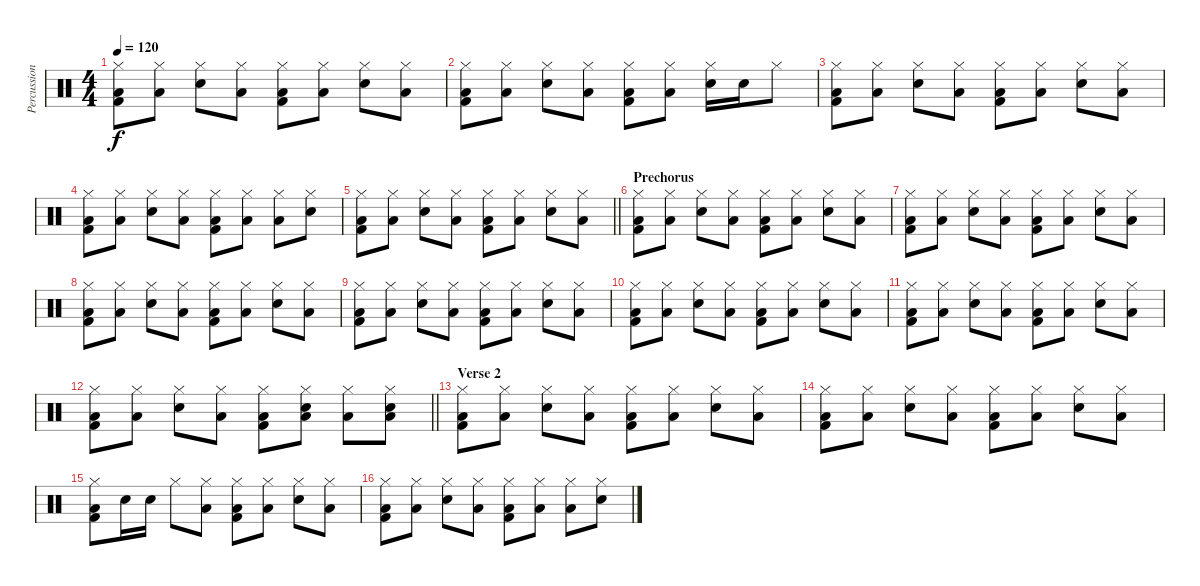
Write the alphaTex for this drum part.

\track ("Percussion" "Percussion") {instrument percussion}
\staff
\articulation defaults
\ts (4 4)
\tempo 120
\clef neutral
\ks c
("Hi-Hat (closed)" "Low Floor Tom (hit)" "Kick (hit) 2").8{dy f} ("Hi-Hat (closed)" "Low Floor Tom (hit)").8 ("Hi-Hat (closed)" "Snare (hit) 2").8 ("Hi-Hat (closed)" "Low Floor Tom (hit)").8 ("Hi-Hat (closed)" "Low Floor Tom (hit)" "Kick (hit) 2").8 ("Hi-Hat (closed)" "Low Floor Tom (hit)").8 ("Hi-Hat (closed)" "Snare (hit) 2").8 ("Hi-Hat (closed)" "Low Floor Tom (hit)").8 |
("Hi-Hat (closed)" "Low Floor Tom (hit)" "Kick (hit) 2").8 ("Hi-Hat (closed)" "Low Floor Tom (hit)").8 ("Hi-Hat (closed)" "Snare (hit) 2").8 ("Hi-Hat (closed)" "Low Floor Tom (hit)").8 ("Hi-Hat (closed)" "Low Floor Tom (hit)" "Kick (hit) 2").8 ("Hi-Hat (closed)" "Low Floor Tom (hit)").8 ("Hi-Hat (closed)" "Snare (hit) 2").16 "Snare (hit) 2".16 "Hi-Hat (closed)".8 |
("Hi-Hat (closed)" "Low Floor Tom (hit)" "Kick (hit) 2").8 ("Hi-Hat (closed)" "Low Floor Tom (hit)").8 ("Hi-Hat (closed)" "Snare (hit) 2").8 ("Hi-Hat (closed)" "Low Floor Tom (hit)").8 ("Hi-Hat (closed)" "Low Floor Tom (hit)" "Kick (hit) 2").8 ("Hi-Hat (closed)" "Low Floor Tom (hit)").8 ("Hi-Hat (closed)" "Snare (hit) 2").8 ("Hi-Hat (closed)" "Low Floor Tom (hit)").8 |
("Hi-Hat (closed)" "Low Floor Tom (hit)" "Kick (hit) 2").8 ("Hi-Hat (closed)" "Low Floor Tom (hit)").8 ("Hi-Hat (closed)" "Snare (hit) 2").8 ("Hi-Hat (closed)" "Low Floor Tom (hit)").8 ("Hi-Hat (closed)" "Low Floor Tom (hit)" "Kick (hit) 2").8 ("Hi-Hat (closed)" "Low Floor Tom (hit)").8 ("Hi-Hat (closed)" "Low Floor Tom (hit)").8 ("Hi-Hat (closed)" "Snare (hit) 2").8 |
\barLineRight lightlight
("Hi-Hat (closed)" "Low Floor Tom (hit)" "Kick (hit) 2").8 ("Hi-Hat (closed)" "Low Floor Tom (hit)").8 ("Hi-Hat (closed)" "Snare (hit) 2").8 ("Hi-Hat (closed)" "Low Floor Tom (hit)").8 ("Hi-Hat (closed)" "Low Floor Tom (hit)" "Kick (hit) 2").8 ("Hi-Hat (closed)" "Low Floor Tom (hit)").8 ("Hi-Hat (closed)" "Snare (hit) 2").8 ("Hi-Hat (closed)" "Low Floor Tom (hit)").8 |
\section ("" "Prechorus")
("Hi-Hat (closed)" "Low Floor Tom (hit)" "Kick (hit) 2").8 ("Hi-Hat (closed)" "Low Floor Tom (hit)").8 ("Hi-Hat (closed)" "Snare (hit) 2").8 ("Hi-Hat (closed)" "Low Floor Tom (hit)").8 ("Hi-Hat (closed)" "Low Floor Tom (hit)" "Kick (hit) 2").8 ("Hi-Hat (closed)" "Low Floor Tom (hit)").8 ("Hi-Hat (closed)" "Snare (hit) 2").8 ("Hi-Hat (closed)" "Low Floor Tom (hit)").8 |
("Hi-Hat (closed)" "Low Floor Tom (hit)" "Kick (hit) 2").8 ("Hi-Hat (closed)" "Low Floor Tom (hit)").8 ("Hi-Hat (closed)" "Snare (hit) 2").8 ("Hi-Hat (closed)" "Low Floor Tom (hit)").8 ("Hi-Hat (closed)" "Low Floor Tom (hit)" "Kick (hit) 2").8 ("Hi-Hat (closed)" "Low Floor Tom (hit)").8 ("Hi-Hat (closed)" "Snare (hit) 2").8 ("Hi-Hat (closed)" "Low Floor Tom (hit)").8 |
("Hi-Hat (closed)" "Low Floor Tom (hit)" "Kick (hit) 2").8 ("Hi-Hat (closed)" "Low Floor Tom (hit)").8 ("Hi-Hat (closed)" "Snare (hit) 2").8 ("Hi-Hat (closed)" "Low Floor Tom (hit)").8 ("Hi-Hat (closed)" "Low Floor Tom (hit)" "Kick (hit) 2").8 ("Hi-Hat (closed)" "Low Floor Tom (hit)").8 ("Hi-Hat (closed)" "Snare (hit) 2").8 ("Hi-Hat (closed)" "Low Floor Tom (hit)").8 |
("Hi-Hat (closed)" "Low Floor Tom (hit)" "Kick (hit) 2").8 ("Hi-Hat (closed)" "Low Floor Tom (hit)").8 ("Hi-Hat (closed)" "Snare (hit) 2").8 ("Hi-Hat (closed)" "Low Floor Tom (hit)").8 ("Hi-Hat (closed)" "Low Floor Tom (hit)" "Kick (hit) 2").8 ("Hi-Hat (closed)" "Low Floor Tom (hit)").8 ("Hi-Hat (closed)" "Snare (hit) 2").8 ("Hi-Hat (closed)" "Low Floor Tom (hit)").8 |
("Hi-Hat (closed)" "Low Floor Tom (hit)" "Kick (hit) 2").8 ("Hi-Hat (closed)" "Low Floor Tom (hit)").8 ("Hi-Hat (closed)" "Snare (hit) 2").8 ("Hi-Hat (closed)" "Low Floor Tom (hit)").8 ("Hi-Hat (closed)" "Low Floor Tom (hit)" "Kick (hit) 2").8 ("Hi-Hat (closed)" "Low Floor Tom (hit)").8 ("Hi-Hat (closed)" "Snare (hit) 2").8 ("Hi-Hat (closed)" "Low Floor Tom (hit)").8 |
("Hi-Hat (closed)" "Low Floor Tom (hit)" "Kick (hit) 2").8 ("Hi-Hat (closed)" "Low Floor Tom (hit)").8 ("Hi-Hat (closed)" "Snare (hit) 2").8 ("Hi-Hat (closed)" "Low Floor Tom (hit)").8 ("Hi-Hat (closed)" "Low Floor Tom (hit)" "Kick (hit) 2").8 ("Hi-Hat (closed)" "Low Floor Tom (hit)").8 ("Hi-Hat (closed)" "Snare (hit) 2").8 ("Hi-Hat (closed)" "Low Floor Tom (hit)").8 |
\barLineRight lightlight
("Hi-Hat (closed)" "Low Floor Tom (hit)" "Kick (hit) 2").8 ("Hi-Hat (closed)" "Low Floor Tom (hit)").8 ("Hi-Hat (closed)" "Snare (hit) 2").8 ("Hi-Hat (closed)" "Low Floor Tom (hit)").8 ("Hi-Hat (closed)" "Low Floor Tom (hit)" "Kick (hit) 2").8 ("Hi-Hat (closed)" "Snare (hit) 2" "Low Floor Tom (hit)").8 ("Hi-Hat (closed)" "Low Floor Tom (hit)").8 ("Hi-Hat (closed)" "Snare (hit) 2" "Low Floor Tom (hit)").8 |
\section ("" "Verse 2")
("Hi-Hat (closed)" "Low Floor Tom (hit)" "Kick (hit) 2").8 ("Hi-Hat (closed)" "Low Floor Tom (hit)").8 ("Hi-Hat (closed)" "Snare (hit) 2").8 ("Hi-Hat (closed)" "Low Floor Tom (hit)").8 ("Hi-Hat (closed)" "Low Floor Tom (hit)" "Kick (hit) 2").8 ("Hi-Hat (closed)" "Low Floor Tom (hit)").8 ("Hi-Hat (closed)" "Snare (hit) 2").8 ("Hi-Hat (closed)" "Low Floor Tom (hit)").8 |
("Hi-Hat (closed)" "Low Floor Tom (hit)" "Kick (hit) 2").8 ("Hi-Hat (closed)" "Low Floor Tom (hit)").8 ("Hi-Hat (closed)" "Snare (hit) 2").8 ("Hi-Hat (closed)" "Low Floor Tom (hit)").8 ("Hi-Hat (closed)" "Low Floor Tom (hit)" "Kick (hit) 2").8 ("Hi-Hat (closed)" "Low Floor Tom (hit)").8 ("Hi-Hat (closed)" "Snare (hit) 2").8 ("Hi-Hat (closed)" "Low Floor Tom (hit)").8 |
("Hi-Hat (closed)" "Low Floor Tom (hit)" "Kick (hit) 2").8 "Snare (hit) 2".16 "Snare (hit) 2".16 "Hi-Hat (closed)".8 ("Hi-Hat (closed)" "Low Floor Tom (hit)").8 ("Hi-Hat (closed)" "Low Floor Tom (hit)" "Kick (hit) 2").8 ("Hi-Hat (closed)" "Low Floor Tom (hit)").8 ("Hi-Hat (closed)" "Snare (hit) 2").8 ("Hi-Hat (closed)" "Low Floor Tom (hit)").8 |
("Hi-Hat (closed)" "Low Floor Tom (hit)" "Kick (hit) 2").8 ("Hi-Hat (closed)" "Low Floor Tom (hit)").8 ("Hi-Hat (closed)" "Snare (hit) 2").8 ("Hi-Hat (closed)" "Low Floor Tom (hit)").8 ("Hi-Hat (closed)" "Low Floor Tom (hit)" "Kick (hit) 2").8 ("Hi-Hat (closed)" "Low Floor Tom (hit)").8 ("Hi-Hat (closed)" "Low Floor Tom (hit)").8 ("Hi-Hat (closed)" "Snare (hit) 2").8
